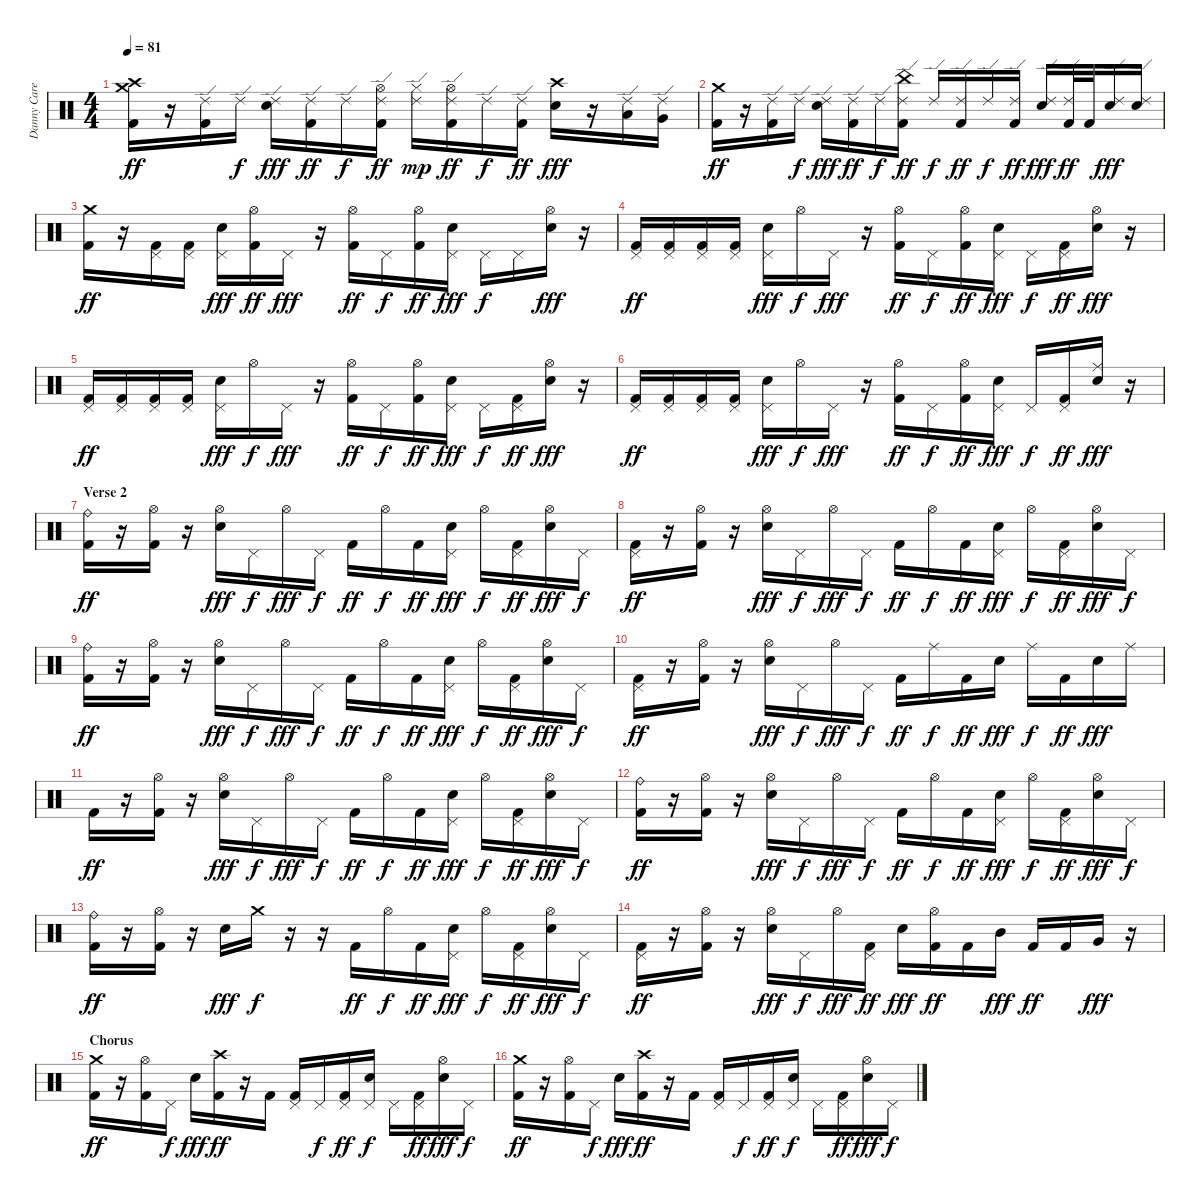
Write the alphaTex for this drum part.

\track ("Danny Carey" "Danny Care") {instrument percussion}
\staff {score}
\articulation defaults
\ts (4 4)
\tempo 81
\clef neutral
\ks c
("Crash medium (hit)" "Crash high (hit)" "Kick (hit) 2").16{dy ff} r.16 ("Ride (edge) 2" "Kick (hit) 2").16 "Ride (edge) 2".16{dy f} ("Ride (edge) 2" "Electric Snare (hit)").16{dy fff} ("Ride (edge) 2" "Kick (hit) 2").16{dy ff} "Ride (edge) 2".16{dy f} ("Ride (edge) 2" "Hi-Hat (open)" "Kick (hit) 2").16{dy ff} ("Ride (edge) 2" "Hi-Hat (closed)").16{dy mp} ("Ride (edge) 2" "Hi-Hat (open)" "Kick (hit) 2").16{dy ff} "Ride (edge) 2".16{dy f} ("Ride (edge) 2" "Kick (hit) 2").16{dy ff} ("Crash high (hit)" "Electric Snare (hit)").16{dy fff} r.16 ("Ride (edge) 2" "Low Tom (hit)").16 ("Ride (edge) 2" "Very Low Tom (hit)").16 |
("Crash medium (hit)" "Kick (hit) 2").16{dy ff} r.16 ("Ride (edge) 2" "Kick (hit) 2").16 "Ride (edge) 2".16{dy f} ("Ride (edge) 2" "Electric Snare (hit)").16{dy fff} ("Ride (edge) 2" "Kick (hit) 2").16{dy ff} "Ride (edge) 2".16{dy f} ("Ride (edge) 2" "China (hit)" "Kick (hit) 2").16{dy ff} "Ride (edge) 2".16{dy f} ("Ride (edge) 2" "Kick (hit) 2").16{dy ff} "Ride (edge) 2".16{dy f} ("Ride (edge) 2" "Kick (hit) 2").16{dy ff} ("Ride (edge) 2" "Electric Snare (hit)").16{dy fff} ("Ride (edge) 2" "Kick (hit) 2").32{dy ff} "Kick (hit) 2".32 ("Ride (edge) 2" "Electric Snare (hit)").16{dy fff} ("Ride (edge) 2" "Electric Snare (hit)").16 |
("Crash medium (hit)" "Kick (hit) 2").16{dy ff} r.16 ("Pedal Hi-Hat (hit)" "Kick (hit) 2").16 ("Pedal Hi-Hat (hit)" "Kick (hit) 2").16 ("Pedal Hi-Hat (hit)" "Electric Snare (hit)").16{dy fff} ("Hi-Hat (open)" "Kick (hit) 2").16{dy ff} "Pedal Hi-Hat (hit)".16{dy fff} r.16 ("Hi-Hat (open)" "Kick (hit) 2").16{dy ff} "Pedal Hi-Hat (hit)".16{dy f} ("Hi-Hat (open)" "Kick (hit) 2").16{dy ff} ("Pedal Hi-Hat (hit)" "Electric Snare (hit)").16{dy fff} "Pedal Hi-Hat (hit)".16{dy f} "Pedal Hi-Hat (hit)".16 ("Hi-Hat (open)" "Electric Snare (hit)").16{dy fff} r.16 |
("Pedal Hi-Hat (hit)" "Kick (hit) 2").16{dy ff} ("Pedal Hi-Hat (hit)" "Kick (hit) 2").16 ("Pedal Hi-Hat (hit)" "Kick (hit) 2").16 ("Pedal Hi-Hat (hit)" "Kick (hit) 2").16 ("Pedal Hi-Hat (hit)" "Electric Snare (hit)").16{dy fff} "Hi-Hat (open)".16{dy f} "Pedal Hi-Hat (hit)".16{dy fff} r.16 ("Hi-Hat (open)" "Kick (hit) 2").16{dy ff} "Pedal Hi-Hat (hit)".16{dy f} ("Hi-Hat (open)" "Kick (hit) 2").16{dy ff} ("Pedal Hi-Hat (hit)" "Electric Snare (hit)").16{dy fff} "Pedal Hi-Hat (hit)".16{dy f} ("Pedal Hi-Hat (hit)" "Kick (hit) 2").16{dy ff} ("Hi-Hat (open)" "Electric Snare (hit)").16{dy fff} r.16 |
("Pedal Hi-Hat (hit)" "Kick (hit) 2").16{dy ff} ("Pedal Hi-Hat (hit)" "Kick (hit) 2").16 ("Pedal Hi-Hat (hit)" "Kick (hit) 2").16 ("Pedal Hi-Hat (hit)" "Kick (hit) 2").16 ("Pedal Hi-Hat (hit)" "Electric Snare (hit)").16{dy fff} "Hi-Hat (open)".16{dy f} "Pedal Hi-Hat (hit)".16{dy fff} r.16 ("Hi-Hat (open)" "Kick (hit) 2").16{dy ff} "Pedal Hi-Hat (hit)".16{dy f} ("Hi-Hat (open)" "Kick (hit) 2").16{dy ff} ("Pedal Hi-Hat (hit)" "Electric Snare (hit)").16{dy fff} "Pedal Hi-Hat (hit)".16{dy f} ("Pedal Hi-Hat (hit)" "Kick (hit) 2").16{dy ff} ("Hi-Hat (open)" "Electric Snare (hit)").16{dy fff} r.16 |
("Pedal Hi-Hat (hit)" "Kick (hit) 2").16{dy ff} ("Pedal Hi-Hat (hit)" "Kick (hit) 2").16 ("Pedal Hi-Hat (hit)" "Kick (hit) 2").16 ("Pedal Hi-Hat (hit)" "Kick (hit) 2").16 ("Pedal Hi-Hat (hit)" "Electric Snare (hit)").16{dy fff} "Hi-Hat (open)".16{dy f} "Pedal Hi-Hat (hit)".16{dy fff} r.16 ("Hi-Hat (open)" "Kick (hit) 2").16{dy ff} "Pedal Hi-Hat (hit)".16{dy f} ("Hi-Hat (open)" "Kick (hit) 2").16{dy ff} ("Pedal Hi-Hat (hit)" "Electric Snare (hit)").16{dy fff} "Pedal Hi-Hat (hit)".16{dy f} ("Pedal Hi-Hat (hit)" "Kick (hit) 2").16{dy ff} ("Ride (middle)" "Electric Snare (hit)").16{dy fff} r.16 |
\section ("" "Verse 2")
("Ride (bell)" "Kick (hit) 2").16{dy ff} r.16 ("Hi-Hat (open)" "Kick (hit) 2").16 r.16 ("Hi-Hat (open)" "Electric Snare (hit)").16{dy fff} "Pedal Hi-Hat (hit)".16{dy f} "Hi-Hat (open)".16{dy fff} "Pedal Hi-Hat (hit)".16{dy f} "Kick (hit) 2".16{dy ff} "Hi-Hat (open)".16{dy f} "Kick (hit) 2".16{dy ff} ("Pedal Hi-Hat (hit)" "Electric Snare (hit)").16{dy fff} "Hi-Hat (open)".16{dy f} ("Pedal Hi-Hat (hit)" "Kick (hit) 2").16{dy ff} ("Hi-Hat (open)" "Electric Snare (hit)").16{dy fff} "Pedal Hi-Hat (hit)".16{dy f} |
("Pedal Hi-Hat (hit)" "Kick (hit) 2").16{dy ff} r.16 ("Hi-Hat (open)" "Kick (hit) 2").16 r.16 ("Hi-Hat (open)" "Electric Snare (hit)").16{dy fff} "Pedal Hi-Hat (hit)".16{dy f} "Hi-Hat (open)".16{dy fff} "Pedal Hi-Hat (hit)".16{dy f} "Kick (hit) 2".16{dy ff} "Hi-Hat (open)".16{dy f} "Kick (hit) 2".16{dy ff} ("Pedal Hi-Hat (hit)" "Electric Snare (hit)").16{dy fff} "Hi-Hat (open)".16{dy f} ("Pedal Hi-Hat (hit)" "Kick (hit) 2").16{dy ff} ("Hi-Hat (open)" "Electric Snare (hit)").16{dy fff} "Pedal Hi-Hat (hit)".16{dy f} |
("Ride (bell)" "Kick (hit) 2").16{dy ff} r.16 ("Hi-Hat (open)" "Kick (hit) 2").16 r.16 ("Hi-Hat (open)" "Electric Snare (hit)").16{dy fff} "Pedal Hi-Hat (hit)".16{dy f} "Hi-Hat (open)".16{dy fff} "Pedal Hi-Hat (hit)".16{dy f} "Kick (hit) 2".16{dy ff} "Hi-Hat (open)".16{dy f} "Kick (hit) 2".16{dy ff} ("Pedal Hi-Hat (hit)" "Electric Snare (hit)").16{dy fff} "Hi-Hat (open)".16{dy f} ("Pedal Hi-Hat (hit)" "Kick (hit) 2").16{dy ff} ("Hi-Hat (open)" "Electric Snare (hit)").16{dy fff} "Pedal Hi-Hat (hit)".16{dy f} |
("Pedal Hi-Hat (hit)" "Kick (hit) 2").16{dy ff} r.16 ("Hi-Hat (open)" "Kick (hit) 2").16 r.16 ("Hi-Hat (open)" "Electric Snare (hit)").16{dy fff} "Pedal Hi-Hat (hit)".16{dy f} "Hi-Hat (open)".16{dy fff} "Pedal Hi-Hat (hit)".16{dy f} "Kick (hit) 2".16{dy ff} "Ride (middle)".16{dy f} "Kick (hit) 2".16{dy ff} "Electric Snare (hit)".16{dy fff} "Ride (middle)".16{dy f} "Kick (hit) 2".16{dy ff} "Electric Snare (hit)".16{dy fff} "Ride (middle)".16 |
"Kick (hit) 2".16{dy ff} r.16 ("Hi-Hat (open)" "Kick (hit) 2").16 r.16 ("Hi-Hat (open)" "Electric Snare (hit)").16{dy fff} "Pedal Hi-Hat (hit)".16{dy f} "Hi-Hat (open)".16{dy fff} "Pedal Hi-Hat (hit)".16{dy f} "Kick (hit) 2".16{dy ff} "Hi-Hat (open)".16{dy f} "Kick (hit) 2".16{dy ff} ("Pedal Hi-Hat (hit)" "Electric Snare (hit)").16{dy fff} "Hi-Hat (open)".16{dy f} ("Pedal Hi-Hat (hit)" "Kick (hit) 2").16{dy ff} ("Hi-Hat (open)" "Electric Snare (hit)").16{dy fff} "Pedal Hi-Hat (hit)".16{dy f} |
("Ride (bell)" "Kick (hit) 2").16{dy ff} r.16 ("Hi-Hat (open)" "Kick (hit) 2").16 r.16 ("Hi-Hat (open)" "Electric Snare (hit)").16{dy fff} "Pedal Hi-Hat (hit)".16{dy f} "Hi-Hat (open)".16{dy fff} "Pedal Hi-Hat (hit)".16{dy f} "Kick (hit) 2".16{dy ff} "Hi-Hat (open)".16{dy f} "Kick (hit) 2".16{dy ff} ("Pedal Hi-Hat (hit)" "Electric Snare (hit)").16{dy fff} "Hi-Hat (open)".16{dy f} ("Pedal Hi-Hat (hit)" "Kick (hit) 2").16{dy ff} ("Hi-Hat (open)" "Electric Snare (hit)").16{dy fff} "Pedal Hi-Hat (hit)".16{dy f} |
("Ride (bell)" "Kick (hit) 2").16{dy ff} r.16 ("Hi-Hat (open)" "Kick (hit) 2").16 r.16 "Electric Snare (hit)".16{dy fff} "Crash medium (hit)".16{dy f} r.16 r.16 "Kick (hit) 2".16{dy ff} "Hi-Hat (open)".16{dy f} "Kick (hit) 2".16{dy ff} ("Pedal Hi-Hat (hit)" "Electric Snare (hit)").16{dy fff} "Hi-Hat (open)".16{dy f} ("Pedal Hi-Hat (hit)" "Kick (hit) 2").16{dy ff} ("Hi-Hat (open)" "Electric Snare (hit)").16{dy fff} "Pedal Hi-Hat (hit)".16{dy f} |
("Pedal Hi-Hat (hit)" "Kick (hit) 2").16{dy ff} r.16 ("Hi-Hat (open)" "Kick (hit) 2").16 r.16 ("Hi-Hat (open)" "Electric Snare (hit)").16{dy fff} "Pedal Hi-Hat (hit)".16{dy f} "Hi-Hat (open)".16{dy fff} ("Pedal Hi-Hat (hit)" "Kick (hit) 2").16{dy ff} "Electric Snare (hit)".16{dy fff} ("Hi-Hat (open)" "Kick (hit) 2").16{dy ff} "Kick (hit) 2".16 "Mid Tom (hit)".16{dy fff} "Kick (hit) 2".16{dy ff} "Kick (hit) 2".16 "Very Low Tom (hit)".16{dy fff} r.16 |
\section ("" "Chorus")
("Crash medium (hit)" "Kick (hit) 2").16{dy ff} r.16 ("Hi-Hat (open)" "Kick (hit) 2").16 "Pedal Hi-Hat (hit)".16{dy f} "Electric Snare (hit)".16{dy fff} ("Crash high (hit)" "Kick (hit) 2").16{dy ff} r.16 "Kick (hit) 2".16 ("Pedal Hi-Hat (hit)" "Kick (hit) 2").16 "Pedal Hi-Hat (hit)".16{dy f} ("Pedal Hi-Hat (hit)" "Kick (hit) 2").16{dy ff} ("Pedal Hi-Hat (hit)" "Electric Snare (hit)").16{dy f} "Pedal Hi-Hat (hit)".16 ("Pedal Hi-Hat (hit)" "Kick (hit) 2").16{dy ff} ("Hi-Hat (open)" "Electric Snare (hit)").16{dy fff} "Pedal Hi-Hat (hit)".16{dy f} |
("Crash medium (hit)" "Kick (hit) 2").16{dy ff} r.16 ("Hi-Hat (open)" "Kick (hit) 2").16 "Pedal Hi-Hat (hit)".16{dy f} "Electric Snare (hit)".16{dy fff} ("Crash high (hit)" "Kick (hit) 2").16{dy ff} r.16 "Kick (hit) 2".16 ("Pedal Hi-Hat (hit)" "Kick (hit) 2").16 "Pedal Hi-Hat (hit)".16{dy f} ("Pedal Hi-Hat (hit)" "Kick (hit) 2").16{dy ff} ("Pedal Hi-Hat (hit)" "Electric Snare (hit)").16{dy f} "Pedal Hi-Hat (hit)".16 ("Pedal Hi-Hat (hit)" "Kick (hit) 2").16{dy ff} ("Hi-Hat (open)" "Electric Snare (hit)").16{dy fff} "Pedal Hi-Hat (hit)".16{dy f}
